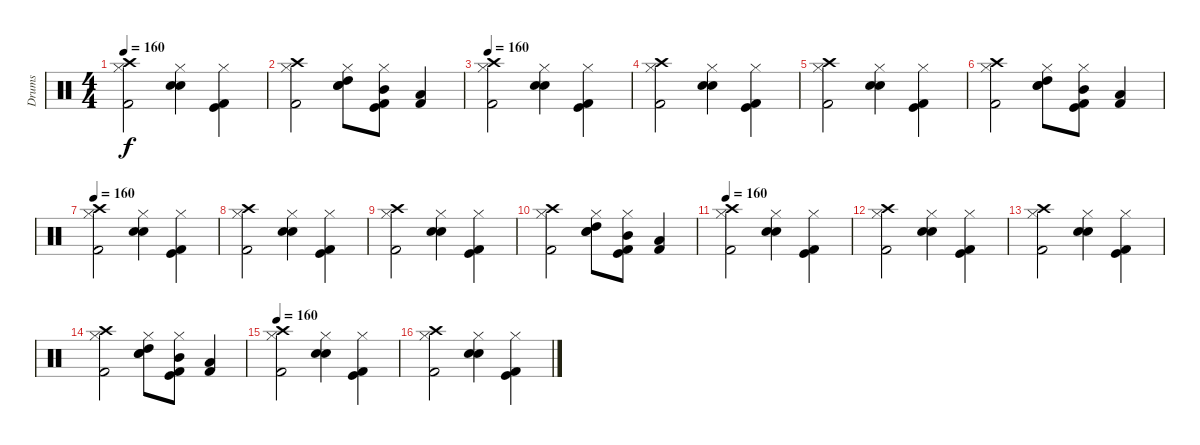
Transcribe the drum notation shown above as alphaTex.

\track ("Drums" "Drums") {instrument percussion}
\staff {score}
\articulation defaults
\ts (4 4)
\tempo 160
\clef neutral
\ks c
("Crash high (hit)" "Hi-Hat (closed)" "Kick (hit) 2").2{dy f} ("Hi-Hat (closed)" "Snare (hit) 2" "Electric Snare (hit)").4 ("Hi-Hat (closed)" "Kick (hit) 2" "Kick (hit)").4 |
("Crash high (hit)" "Hi-Hat (closed)" "Kick (hit) 2").2 ("Hi-Hat (closed)" "Snare (hit) 2" "Electric Snare (hit)" "High Tom (hit)").8 ("Hi-Hat (closed)" "Kick (hit) 2" "Kick (hit)" "Mid Tom (hit)").8 ("Kick (hit) 2" "Low Tom (hit)").4 |
\tempo 160
("Crash high (hit)" "Hi-Hat (closed)" "Kick (hit) 2").2 ("Hi-Hat (closed)" "Snare (hit) 2" "Electric Snare (hit)").4 ("Hi-Hat (closed)" "Kick (hit) 2" "Kick (hit)").4 |
("Crash high (hit)" "Hi-Hat (closed)" "Kick (hit) 2").2 ("Hi-Hat (closed)" "Snare (hit) 2" "Electric Snare (hit)").4 ("Hi-Hat (closed)" "Kick (hit) 2" "Kick (hit)").4 |
("Crash high (hit)" "Hi-Hat (closed)" "Kick (hit) 2").2 ("Hi-Hat (closed)" "Snare (hit) 2" "Electric Snare (hit)").4 ("Hi-Hat (closed)" "Kick (hit) 2" "Kick (hit)").4 |
("Crash high (hit)" "Hi-Hat (closed)" "Kick (hit) 2").2 ("Hi-Hat (closed)" "Snare (hit) 2" "Electric Snare (hit)" "High Tom (hit)").8 ("Hi-Hat (closed)" "Kick (hit) 2" "Kick (hit)" "Mid Tom (hit)").8 ("Kick (hit) 2" "Low Tom (hit)").4 |
\tempo 160
("Crash high (hit)" "Hi-Hat (closed)" "Kick (hit) 2").2 ("Hi-Hat (closed)" "Snare (hit) 2" "Electric Snare (hit)").4 ("Hi-Hat (closed)" "Kick (hit) 2" "Kick (hit)").4 |
("Crash high (hit)" "Hi-Hat (closed)" "Kick (hit) 2").2 ("Hi-Hat (closed)" "Snare (hit) 2" "Electric Snare (hit)").4 ("Hi-Hat (closed)" "Kick (hit) 2" "Kick (hit)").4 |
("Crash high (hit)" "Hi-Hat (closed)" "Kick (hit) 2").2 ("Hi-Hat (closed)" "Snare (hit) 2" "Electric Snare (hit)").4 ("Hi-Hat (closed)" "Kick (hit) 2" "Kick (hit)").4 |
("Crash high (hit)" "Hi-Hat (closed)" "Kick (hit) 2").2 ("Hi-Hat (closed)" "Snare (hit) 2" "Electric Snare (hit)" "High Tom (hit)").8 ("Hi-Hat (closed)" "Kick (hit) 2" "Kick (hit)" "Mid Tom (hit)").8 ("Kick (hit) 2" "Low Tom (hit)").4 |
\tempo 160
("Crash high (hit)" "Hi-Hat (closed)" "Kick (hit) 2").2 ("Hi-Hat (closed)" "Snare (hit) 2" "Electric Snare (hit)").4 ("Hi-Hat (closed)" "Kick (hit) 2" "Kick (hit)").4 |
("Crash high (hit)" "Hi-Hat (closed)" "Kick (hit) 2").2 ("Hi-Hat (closed)" "Snare (hit) 2" "Electric Snare (hit)").4 ("Hi-Hat (closed)" "Kick (hit) 2" "Kick (hit)").4 |
("Crash high (hit)" "Hi-Hat (closed)" "Kick (hit) 2").2 ("Hi-Hat (closed)" "Snare (hit) 2" "Electric Snare (hit)").4 ("Hi-Hat (closed)" "Kick (hit) 2" "Kick (hit)").4 |
("Crash high (hit)" "Hi-Hat (closed)" "Kick (hit) 2").2 ("Hi-Hat (closed)" "Snare (hit) 2" "Electric Snare (hit)" "High Tom (hit)").8 ("Hi-Hat (closed)" "Kick (hit) 2" "Kick (hit)" "Mid Tom (hit)").8 ("Kick (hit) 2" "Low Tom (hit)").4 |
\tempo 160
("Crash high (hit)" "Hi-Hat (closed)" "Kick (hit) 2").2 ("Hi-Hat (closed)" "Snare (hit) 2" "Electric Snare (hit)").4 ("Hi-Hat (closed)" "Kick (hit) 2" "Kick (hit)").4 |
("Crash high (hit)" "Hi-Hat (closed)" "Kick (hit) 2").2 ("Hi-Hat (closed)" "Snare (hit) 2" "Electric Snare (hit)").4 ("Hi-Hat (closed)" "Kick (hit) 2" "Kick (hit)").4
